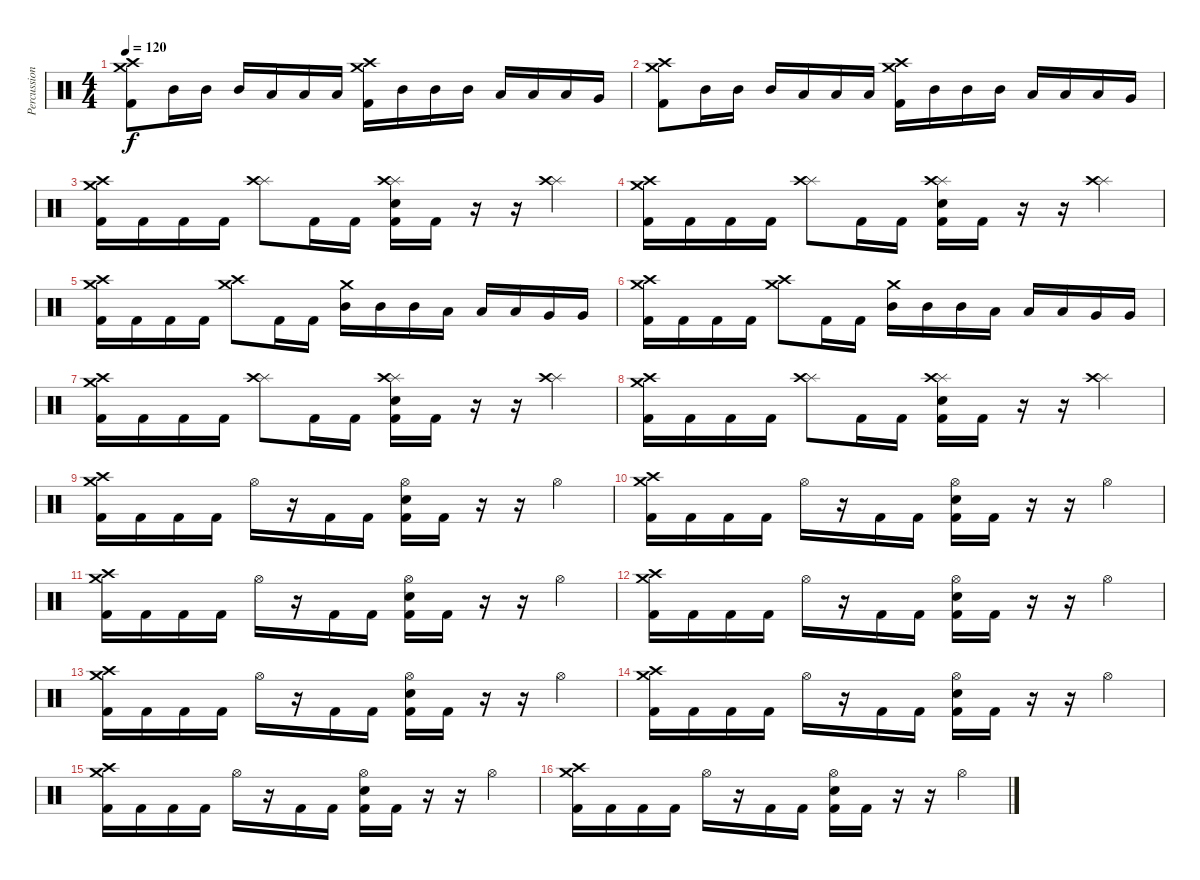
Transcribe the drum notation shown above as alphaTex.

\track ("Percussion" "Percussion") {instrument percussion}
\staff {score}
\articulation defaults
\ts (4 4)
\tempo 120
\clef neutral
\ks c
("Crash high (hit)" "Crash medium (hit)" "Kick (hit) 2").8{dy f} "Mid Tom (hit)".16 "Mid Tom (hit)".16 "Mid Tom (hit)".16 "Low Tom (hit)".16 "Low Tom (hit)".16 "Low Tom (hit)".16 ("Crash medium (hit)" "Crash high (hit)" "Kick (hit) 2").16 "Mid Tom (hit)".16 "Mid Tom (hit)".16 "Mid Tom (hit)".16 "Low Tom (hit)".16 "Low Tom (hit)".16 "Low Tom (hit)".16 "Very Low Tom (hit)".16 |
("Crash high (hit)" "Crash medium (hit)" "Kick (hit) 2").8 "Mid Tom (hit)".16 "Mid Tom (hit)".16 "Mid Tom (hit)".16 "Low Tom (hit)".16 "Low Tom (hit)".16 "Low Tom (hit)".16 ("Crash medium (hit)" "Crash high (hit)" "Kick (hit) 2").16 "Mid Tom (hit)".16 "Mid Tom (hit)".16 "Mid Tom (hit)".16 "Low Tom (hit)".16 "Low Tom (hit)".16 "Low Tom (hit)".16 "Very Low Tom (hit)".16 |
("Crash medium (hit)" "Crash high (hit)" "Kick (hit) 2").16 "Kick (hit) 2".16 "Kick (hit) 2".16 "Kick (hit) 2".16 ("Splash (hit)" "Crash high (hit)").8 "Kick (hit) 2".16 "Kick (hit) 2".16 ("Splash (hit)" "Crash high (hit)" "Snare (hit) 2" "Kick (hit) 2").16 "Kick (hit) 2".16 r.16 r.16 ("Splash (hit)" "Crash high (hit)").4 |
("Crash medium (hit)" "Crash high (hit)" "Kick (hit) 2").16 "Kick (hit) 2".16 "Kick (hit) 2".16 "Kick (hit) 2".16 ("Splash (hit)" "Crash high (hit)").8 "Kick (hit) 2".16 "Kick (hit) 2".16 ("Splash (hit)" "Crash high (hit)" "Snare (hit) 2" "Kick (hit) 2").16 "Kick (hit) 2".16 r.16 r.16 ("Splash (hit)" "Crash high (hit)").4 |
("Crash medium (hit)" "Crash high (hit)" "Kick (hit) 2").16 "Kick (hit) 2".16 "Kick (hit) 2".16 "Kick (hit) 2".16 ("Crash medium (hit)" "Crash high (hit)").8 "Kick (hit) 2".16 "Kick (hit) 2".16 ("Crash medium (hit)" "Mid Tom (hit)").16 "Mid Tom (hit)".16 "Mid Tom (hit)".16 "Low Tom (hit)".16 "Low Tom (hit)".16 "Low Tom (hit)".16 "Very Low Tom (hit)".16 "Very Low Tom (hit)".16 |
("Crash medium (hit)" "Crash high (hit)" "Kick (hit) 2").16 "Kick (hit) 2".16 "Kick (hit) 2".16 "Kick (hit) 2".16 ("Crash medium (hit)" "Crash high (hit)").8 "Kick (hit) 2".16 "Kick (hit) 2".16 ("Crash medium (hit)" "Mid Tom (hit)").16 "Mid Tom (hit)".16 "Mid Tom (hit)".16 "Low Tom (hit)".16 "Low Tom (hit)".16 "Low Tom (hit)".16 "Very Low Tom (hit)".16 "Very Low Tom (hit)".16 |
("Crash medium (hit)" "Crash high (hit)" "Kick (hit) 2").16 "Kick (hit) 2".16 "Kick (hit) 2".16 "Kick (hit) 2".16 ("Splash (hit)" "Crash high (hit)").8 "Kick (hit) 2".16 "Kick (hit) 2".16 ("Splash (hit)" "Crash high (hit)" "Snare (hit) 2" "Kick (hit) 2").16 "Kick (hit) 2".16 r.16 r.16 ("Splash (hit)" "Crash high (hit)").4 |
("Crash medium (hit)" "Crash high (hit)" "Kick (hit) 2").16 "Kick (hit) 2".16 "Kick (hit) 2".16 "Kick (hit) 2".16 ("Splash (hit)" "Crash high (hit)").8 "Kick (hit) 2".16 "Kick (hit) 2".16 ("Splash (hit)" "Crash high (hit)" "Snare (hit) 2" "Kick (hit) 2").16 "Kick (hit) 2".16 r.16 r.16 ("Splash (hit)" "Crash high (hit)").4 |
("Crash medium (hit)" "Crash high (hit)" "Kick (hit) 2").16 "Kick (hit) 2".16 "Kick (hit) 2".16 "Kick (hit) 2".16 "Hi-Hat (open)".16 r.16 "Kick (hit) 2".16 "Kick (hit) 2".16 ("Hi-Hat (open)" "Snare (hit) 2" "Kick (hit) 2").16 "Kick (hit) 2".16 r.16 r.16 "Hi-Hat (open)".4 |
("Crash medium (hit)" "Crash high (hit)" "Kick (hit) 2").16 "Kick (hit) 2".16 "Kick (hit) 2".16 "Kick (hit) 2".16 "Hi-Hat (open)".16 r.16 "Kick (hit) 2".16 "Kick (hit) 2".16 ("Hi-Hat (open)" "Snare (hit) 2" "Kick (hit) 2").16 "Kick (hit) 2".16 r.16 r.16 "Hi-Hat (open)".4 |
("Crash medium (hit)" "Crash high (hit)" "Kick (hit) 2").16 "Kick (hit) 2".16 "Kick (hit) 2".16 "Kick (hit) 2".16 "Hi-Hat (open)".16 r.16 "Kick (hit) 2".16 "Kick (hit) 2".16 ("Hi-Hat (open)" "Snare (hit) 2" "Kick (hit) 2").16 "Kick (hit) 2".16 r.16 r.16 "Hi-Hat (open)".4 |
("Crash medium (hit)" "Crash high (hit)" "Kick (hit) 2").16 "Kick (hit) 2".16 "Kick (hit) 2".16 "Kick (hit) 2".16 "Hi-Hat (open)".16 r.16 "Kick (hit) 2".16 "Kick (hit) 2".16 ("Hi-Hat (open)" "Snare (hit) 2" "Kick (hit) 2").16 "Kick (hit) 2".16 r.16 r.16 "Hi-Hat (open)".4 |
("Crash medium (hit)" "Crash high (hit)" "Kick (hit) 2").16 "Kick (hit) 2".16 "Kick (hit) 2".16 "Kick (hit) 2".16 "Hi-Hat (open)".16 r.16 "Kick (hit) 2".16 "Kick (hit) 2".16 ("Hi-Hat (open)" "Snare (hit) 2" "Kick (hit) 2").16 "Kick (hit) 2".16 r.16 r.16 "Hi-Hat (open)".4 |
("Crash medium (hit)" "Crash high (hit)" "Kick (hit) 2").16 "Kick (hit) 2".16 "Kick (hit) 2".16 "Kick (hit) 2".16 "Hi-Hat (open)".16 r.16 "Kick (hit) 2".16 "Kick (hit) 2".16 ("Hi-Hat (open)" "Snare (hit) 2" "Kick (hit) 2").16 "Kick (hit) 2".16 r.16 r.16 "Hi-Hat (open)".4 |
("Crash medium (hit)" "Crash high (hit)" "Kick (hit) 2").16 "Kick (hit) 2".16 "Kick (hit) 2".16 "Kick (hit) 2".16 "Hi-Hat (open)".16 r.16 "Kick (hit) 2".16 "Kick (hit) 2".16 ("Hi-Hat (open)" "Snare (hit) 2" "Kick (hit) 2").16 "Kick (hit) 2".16 r.16 r.16 "Hi-Hat (open)".4 |
("Crash medium (hit)" "Crash high (hit)" "Kick (hit) 2").16 "Kick (hit) 2".16 "Kick (hit) 2".16 "Kick (hit) 2".16 "Hi-Hat (open)".16 r.16 "Kick (hit) 2".16 "Kick (hit) 2".16 ("Hi-Hat (open)" "Snare (hit) 2" "Kick (hit) 2").16 "Kick (hit) 2".16 r.16 r.16 "Hi-Hat (open)".4
